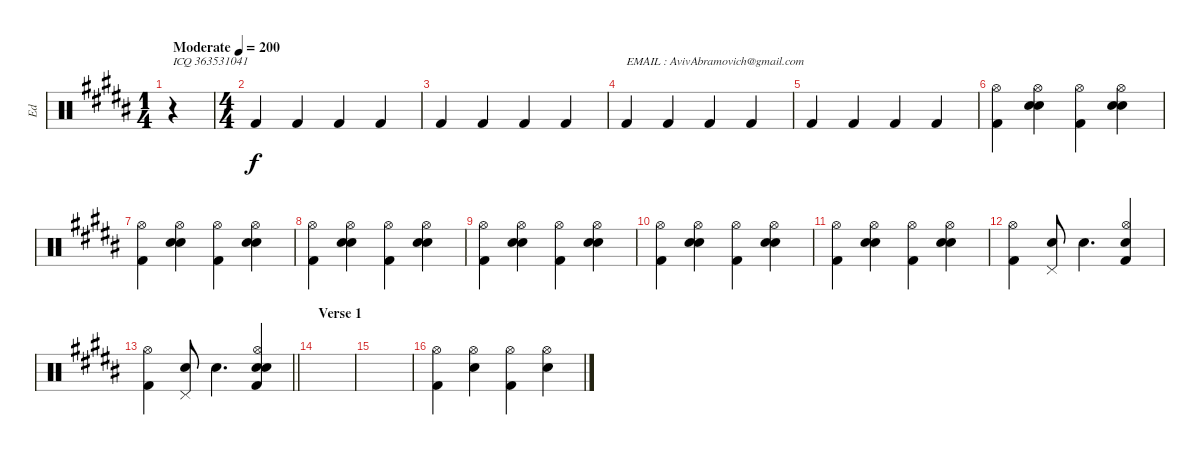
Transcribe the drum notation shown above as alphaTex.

\track ("Ed" "Ed") {instrument percussion bank 127}
\staff {score}
\articulation defaults
\ts (1 4)
\tempo (200 "Moderate")
\clef neutral
\ks g#minor
r.4{txt "ICQ 363531041" dy f} |
\ts (4 4)
"Kick (hit) 2".4 "Kick (hit) 2".4 "Kick (hit) 2".4 "Kick (hit) 2".4 |
"Kick (hit) 2".4 "Kick (hit) 2".4 "Kick (hit) 2".4 "Kick (hit) 2".4 |
"Kick (hit) 2".4{txt "EMAIL : AvivAbramovich@gmail.com"} "Kick (hit) 2".4 "Kick (hit) 2".4 "Kick (hit) 2".4 |
"Kick (hit) 2".4 "Kick (hit) 2".4 "Kick (hit) 2".4 "Kick (hit) 2".4 |
("Hi-Hat (open)" "Kick (hit) 2").4 ("Hi-Hat (open)" "Electric Snare (hit)" "Electric Snare (hit)").4 ("Hi-Hat (open)" "Kick (hit) 2").4 ("Hi-Hat (open)" "Electric Snare (hit)" "Electric Snare (hit)").4 |
("Hi-Hat (open)" "Kick (hit) 2").4 ("Hi-Hat (open)" "Electric Snare (hit)" "Electric Snare (hit)").4 ("Hi-Hat (open)" "Kick (hit) 2").4 ("Hi-Hat (open)" "Electric Snare (hit)" "Electric Snare (hit)").4 |
("Hi-Hat (open)" "Kick (hit) 2").4 ("Hi-Hat (open)" "Electric Snare (hit)" "Electric Snare (hit)").4 ("Hi-Hat (open)" "Kick (hit) 2").4 ("Hi-Hat (open)" "Electric Snare (hit)" "Electric Snare (hit)").4 |
("Hi-Hat (open)" "Kick (hit) 2").4 ("Hi-Hat (open)" "Electric Snare (hit)" "Electric Snare (hit)").4 ("Hi-Hat (open)" "Kick (hit) 2").4 ("Hi-Hat (open)" "Electric Snare (hit)" "Electric Snare (hit)").4 |
("Hi-Hat (open)" "Kick (hit) 2").4 ("Hi-Hat (open)" "Electric Snare (hit)" "Electric Snare (hit)").4 ("Hi-Hat (open)" "Kick (hit) 2").4 ("Hi-Hat (open)" "Electric Snare (hit)" "Electric Snare (hit)").4 |
("Hi-Hat (open)" "Kick (hit) 2").4 ("Hi-Hat (open)" "Electric Snare (hit)" "Electric Snare (hit)").4 ("Hi-Hat (open)" "Kick (hit) 2").4 ("Hi-Hat (open)" "Electric Snare (hit)" "Electric Snare (hit)").4 |
("Hi-Hat (open)" "Kick (hit) 2").4 ("Pedal Hi-Hat (hit)" "Electric Snare (hit)").8 "Electric Snare (hit)".4{d} ("Hi-Hat (open)" "Electric Snare (hit)" "Kick (hit) 2").4 |
\barLineRight lightlight
("Hi-Hat (open)" "Kick (hit) 2").4 ("Pedal Hi-Hat (hit)" "Electric Snare (hit)").8 "Electric Snare (hit)".4{d} ("Hi-Hat (open)" "Electric Snare (hit)" "Electric Snare (hit)" "Kick (hit) 2").4 |
\section ("" "Verse 1")
|
|
("Hi-Hat (open)" "Kick (hit) 2").4 ("Hi-Hat (open)" "Electric Snare (hit)").4 ("Hi-Hat (open)" "Kick (hit) 2").4 ("Hi-Hat (open)" "Electric Snare (hit)").4
